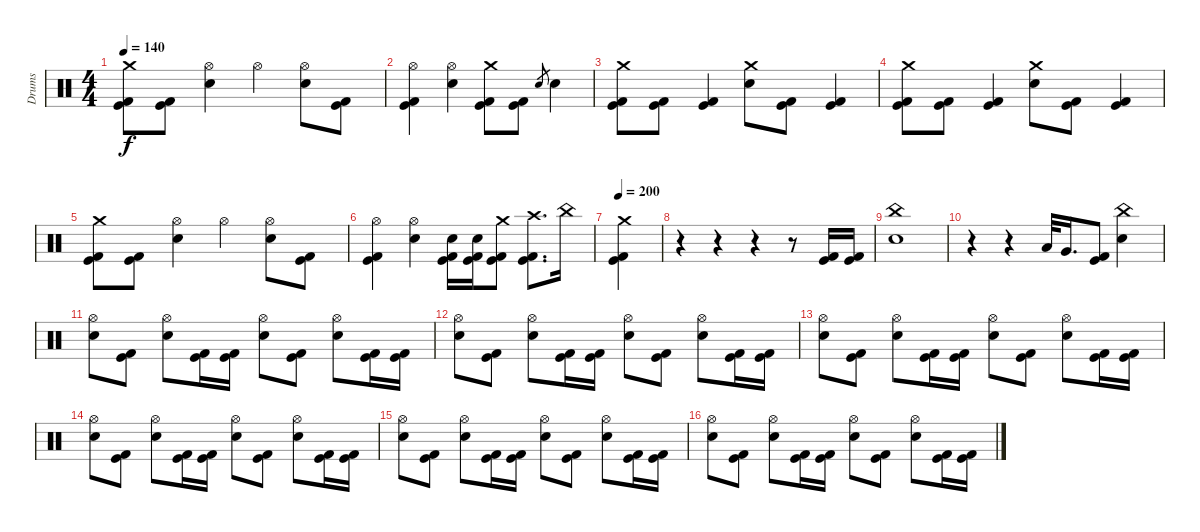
\track ("Drums" "Drums") {instrument percussion}
\staff {score}
\articulation defaults
\ts (4 4)
\tempo 140
\clef neutral
\ks c
("Crash medium (hit)" "Kick (hit)" "Kick (hit) 2").8{dy f} ("Kick (hit)" "Kick (hit) 2").8 ("Hi-Hat (open)" "Electric Snare (hit)").4 "Hi-Hat (open)".4 ("Hi-Hat (open)" "Electric Snare (hit)").8 ("Kick (hit)" "Kick (hit) 2").8 |
("Hi-Hat (open)" "Kick (hit)" "Kick (hit) 2").4 ("Hi-Hat (open)" "Electric Snare (hit)").4 ("Crash medium (hit)" "Kick (hit)" "Kick (hit) 2").8 ("Kick (hit)" "Kick (hit) 2").8 "Electric Snare (hit)".8{gr} "Electric Snare (hit)".4 |
("Crash medium (hit)" "Kick (hit)" "Kick (hit) 2").8 ("Kick (hit)" "Kick (hit) 2").8 ("Kick (hit)" "Kick (hit) 2").4 ("Crash medium (hit)" "Electric Snare (hit)").8 ("Kick (hit)" "Kick (hit) 2").8 ("Kick (hit)" "Kick (hit) 2").4 |
("Crash medium (hit)" "Kick (hit)" "Kick (hit) 2").8 ("Kick (hit)" "Kick (hit) 2").8 ("Kick (hit)" "Kick (hit) 2").4 ("Crash medium (hit)" "Electric Snare (hit)").8 ("Kick (hit)" "Kick (hit) 2").8 ("Kick (hit)" "Kick (hit) 2").4 |
("Crash medium (hit)" "Kick (hit)" "Kick (hit) 2").8 ("Kick (hit)" "Kick (hit) 2").8 ("Hi-Hat (open)" "Electric Snare (hit)").4 "Hi-Hat (open)".4 ("Hi-Hat (open)" "Electric Snare (hit)").8 ("Kick (hit)" "Kick (hit) 2").8 |
("Hi-Hat (open)" "Kick (hit)" "Kick (hit) 2").4 ("Hi-Hat (open)" "Electric Snare (hit)").4 ("Electric Snare (hit)" "Kick (hit)" "Kick (hit) 2").16 ("Electric Snare (hit)" "Kick (hit)" "Kick (hit) 2").16 ("Crash medium (hit)" "Kick (hit)" "Kick (hit) 2").8 ("Crash high (hit)" "Kick (hit)" "Kick (hit) 2").8{d} "China (hit)".16 |
\tempo 200
("Crash medium (hit)" "Kick (hit)" "Kick (hit) 2").4 |
r.4 r.4 r.4 r.8 ("Kick (hit)" "Kick (hit) 2").16 ("Kick (hit)" "Kick (hit) 2").16 |
("China (hit)" "Electric Snare (hit)").1 |
r.4 r.4 "Low Tom (hit)".32 "Very Low Tom (hit)".16{d} ("Kick (hit)" "Kick (hit) 2").8 ("China (hit)" "Electric Snare (hit)").4 |
("Hi-Hat (open)" "Electric Snare (hit)").8 ("Kick (hit)" "Kick (hit) 2").8 ("Hi-Hat (open)" "Electric Snare (hit)").8 ("Kick (hit)" "Kick (hit) 2").16 ("Kick (hit)" "Kick (hit) 2").16 ("Hi-Hat (open)" "Electric Snare (hit)").8 ("Kick (hit)" "Kick (hit) 2").8 ("Hi-Hat (open)" "Electric Snare (hit)").8 ("Kick (hit)" "Kick (hit) 2").16 ("Kick (hit)" "Kick (hit) 2").16 |
("Hi-Hat (open)" "Electric Snare (hit)").8 ("Kick (hit)" "Kick (hit) 2").8 ("Hi-Hat (open)" "Electric Snare (hit)").8 ("Kick (hit)" "Kick (hit) 2").16 ("Kick (hit)" "Kick (hit) 2").16 ("Hi-Hat (open)" "Electric Snare (hit)").8 ("Kick (hit)" "Kick (hit) 2").8 ("Hi-Hat (open)" "Electric Snare (hit)").8 ("Kick (hit)" "Kick (hit) 2").16 ("Kick (hit)" "Kick (hit) 2").16 |
("Hi-Hat (open)" "Electric Snare (hit)").8 ("Kick (hit)" "Kick (hit) 2").8 ("Hi-Hat (open)" "Electric Snare (hit)").8 ("Kick (hit)" "Kick (hit) 2").16 ("Kick (hit)" "Kick (hit) 2").16 ("Hi-Hat (open)" "Electric Snare (hit)").8 ("Kick (hit)" "Kick (hit) 2").8 ("Hi-Hat (open)" "Electric Snare (hit)").8 ("Kick (hit)" "Kick (hit) 2").16 ("Kick (hit)" "Kick (hit) 2").16 |
("Hi-Hat (open)" "Electric Snare (hit)").8 ("Kick (hit)" "Kick (hit) 2").8 ("Hi-Hat (open)" "Electric Snare (hit)").8 ("Kick (hit)" "Kick (hit) 2").16 ("Kick (hit)" "Kick (hit) 2").16 ("Hi-Hat (open)" "Electric Snare (hit)").8 ("Kick (hit)" "Kick (hit) 2").8 ("Hi-Hat (open)" "Electric Snare (hit)").8 ("Kick (hit)" "Kick (hit) 2").16 ("Kick (hit)" "Kick (hit) 2").16 |
("Hi-Hat (open)" "Electric Snare (hit)").8 ("Kick (hit)" "Kick (hit) 2").8 ("Hi-Hat (open)" "Electric Snare (hit)").8 ("Kick (hit)" "Kick (hit) 2").16 ("Kick (hit)" "Kick (hit) 2").16 ("Hi-Hat (open)" "Electric Snare (hit)").8 ("Kick (hit)" "Kick (hit) 2").8 ("Hi-Hat (open)" "Electric Snare (hit)").8 ("Kick (hit)" "Kick (hit) 2").16 ("Kick (hit)" "Kick (hit) 2").16 |
("Hi-Hat (open)" "Electric Snare (hit)").8 ("Kick (hit)" "Kick (hit) 2").8 ("Hi-Hat (open)" "Electric Snare (hit)").8 ("Kick (hit)" "Kick (hit) 2").16 ("Kick (hit)" "Kick (hit) 2").16 ("Hi-Hat (open)" "Electric Snare (hit)").8 ("Kick (hit)" "Kick (hit) 2").8 ("Hi-Hat (open)" "Electric Snare (hit)").8 ("Kick (hit)" "Kick (hit) 2").16 ("Kick (hit)" "Kick (hit) 2").16
